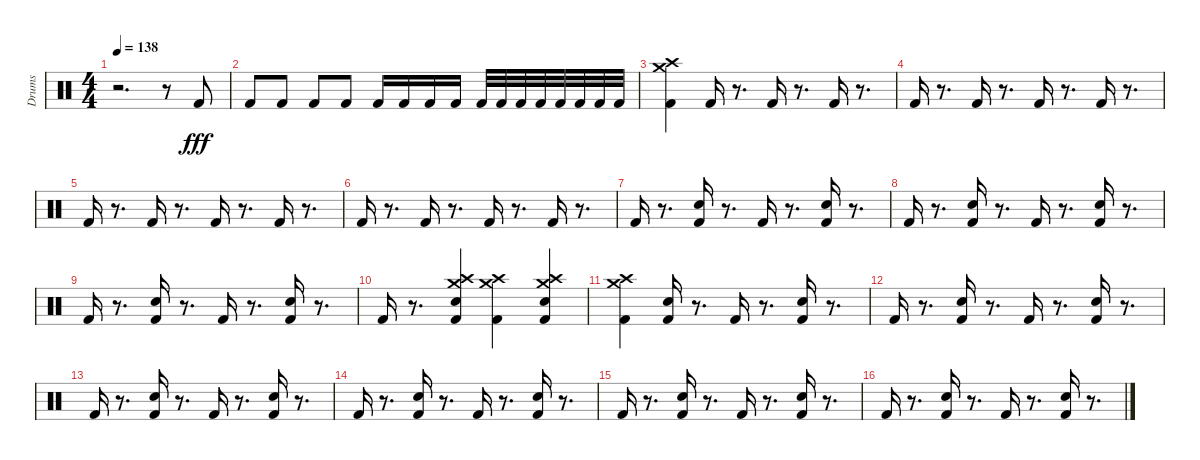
\track ("Drums" "Drums") {instrument percussion}
\staff {score}
\articulation defaults
\ts (4 4)
\tempo 138
\clef neutral
\ks c
r.2{d dy fff} r.8 "Kick (hit) 2".8 |
"Kick (hit) 2".8 "Kick (hit) 2".8 "Kick (hit) 2".8 "Kick (hit) 2".8 "Kick (hit) 2".16 "Kick (hit) 2".16 "Kick (hit) 2".16 "Kick (hit) 2".16 "Kick (hit) 2".32 "Kick (hit) 2".32 "Kick (hit) 2".32 "Kick (hit) 2".32 "Kick (hit) 2".32 "Kick (hit) 2".32 "Kick (hit) 2".32 "Kick (hit) 2".32 |
("Kick (hit) 2" "Crash high (hit)" "Crash medium (hit)").4 "Kick (hit) 2".16 r.8{d} "Kick (hit) 2".16 r.8{d} "Kick (hit) 2".16 r.8{d} |
"Kick (hit) 2".16 r.8{d} "Kick (hit) 2".16 r.8{d} "Kick (hit) 2".16 r.8{d} "Kick (hit) 2".16 r.8{d} |
"Kick (hit) 2".16 r.8{d} "Kick (hit) 2".16 r.8{d} "Kick (hit) 2".16 r.8{d} "Kick (hit) 2".16 r.8{d} |
"Kick (hit) 2".16 r.8{d} "Kick (hit) 2".16 r.8{d} "Kick (hit) 2".16 r.8{d} "Kick (hit) 2".16 r.8{d} |
"Kick (hit) 2".16 r.8{d} ("Kick (hit) 2" "Hand Clap (hit)").16 r.8{d} "Kick (hit) 2".16 r.8{d} ("Kick (hit) 2" "Hand Clap (hit)").16 r.8{d} |
"Kick (hit) 2".16 r.8{d} ("Kick (hit) 2" "Hand Clap (hit)").16 r.8{d} "Kick (hit) 2".16 r.8{d} ("Kick (hit) 2" "Hand Clap (hit)").16 r.8{d} |
"Kick (hit) 2".16 r.8{d} ("Kick (hit) 2" "Hand Clap (hit)").16 r.8{d} "Kick (hit) 2".16 r.8{d} ("Kick (hit) 2" "Hand Clap (hit)").16 r.8{d} |
"Kick (hit) 2".16 r.8{d} ("Kick (hit) 2" "Hand Clap (hit)" "Crash high (hit)" "Crash medium (hit)").4 ("Kick (hit) 2" "Crash high (hit)" "Crash medium (hit)").4 ("Kick (hit) 2" "Crash high (hit)" "Crash medium (hit)" "Hand Clap (hit)").4 |
("Kick (hit) 2" "Crash high (hit)" "Crash medium (hit)").4 ("Kick (hit) 2" "Hand Clap (hit)").16 r.8{d} "Kick (hit) 2".16 r.8{d} ("Kick (hit) 2" "Hand Clap (hit)").16 r.8{d} |
"Kick (hit) 2".16 r.8{d} ("Kick (hit) 2" "Hand Clap (hit)").16 r.8{d} "Kick (hit) 2".16 r.8{d} ("Kick (hit) 2" "Hand Clap (hit)").16 r.8{d} |
"Kick (hit) 2".16 r.8{d} ("Kick (hit) 2" "Hand Clap (hit)").16 r.8{d} "Kick (hit) 2".16 r.8{d} ("Kick (hit) 2" "Hand Clap (hit)").16 r.8{d} |
"Kick (hit) 2".16 r.8{d} ("Kick (hit) 2" "Hand Clap (hit)").16 r.8{d} "Kick (hit) 2".16 r.8{d} ("Kick (hit) 2" "Hand Clap (hit)").16 r.8{d} |
"Kick (hit) 2".16 r.8{d} ("Kick (hit) 2" "Hand Clap (hit)").16 r.8{d} "Kick (hit) 2".16 r.8{d} ("Kick (hit) 2" "Hand Clap (hit)").16 r.8{d} |
"Kick (hit) 2".16 r.8{d} ("Kick (hit) 2" "Hand Clap (hit)").16 r.8{d} "Kick (hit) 2".16 r.8{d} ("Kick (hit) 2" "Hand Clap (hit)").16 r.8{d}
